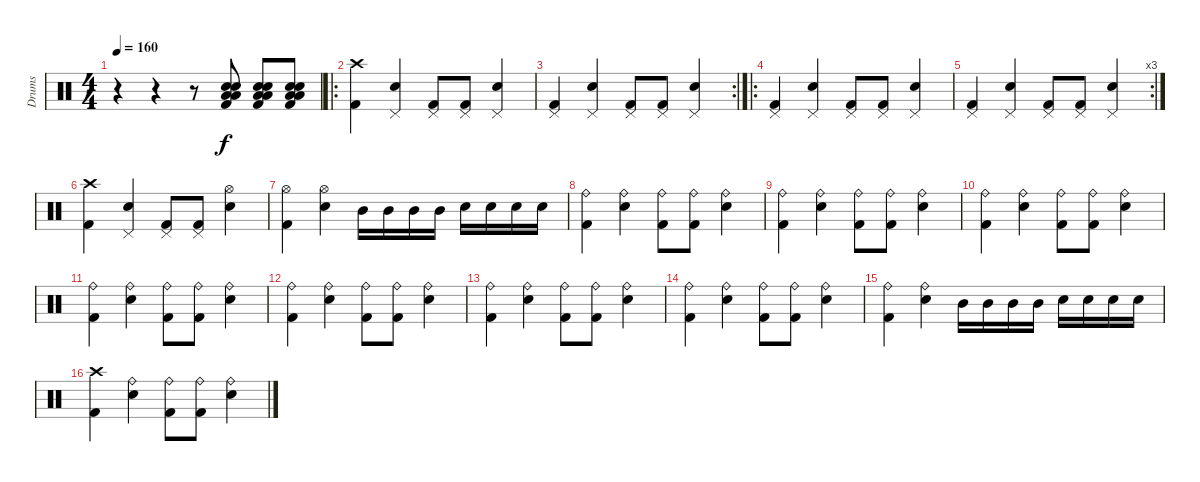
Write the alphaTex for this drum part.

\track ("Drums" "Drums") {instrument percussion}
\staff {score}
\articulation defaults
\ts (4 4)
\tempo 160
\clef neutral
\ks c
r.4{dy f} r.4 r.8 ("Electric Snare (hit)" "Electric Snare (hit)" "Low Floor Tom (hit)" "Low Floor Tom (hit)" "Kick (hit) 2").8 ("Electric Snare (hit)" "Electric Snare (hit)" "Low Floor Tom (hit)" "Low Floor Tom (hit)" "Kick (hit) 2").8 ("Electric Snare (hit)" "Electric Snare (hit)" "Low Floor Tom (hit)" "Low Floor Tom (hit)" "Kick (hit) 2").8 |
\ro
("Crash high (hit)" "Kick (hit) 2").4 ("Electric Snare (hit)" "Pedal Hi-Hat (hit)").4 ("Kick (hit) 2" "Pedal Hi-Hat (hit)").8 ("Kick (hit) 2" "Pedal Hi-Hat (hit)").8 ("Electric Snare (hit)" "Pedal Hi-Hat (hit)").4 |
\rc 2
("Kick (hit) 2" "Pedal Hi-Hat (hit)").4 ("Electric Snare (hit)" "Pedal Hi-Hat (hit)").4 ("Kick (hit) 2" "Pedal Hi-Hat (hit)").8 ("Kick (hit) 2" "Pedal Hi-Hat (hit)").8 ("Electric Snare (hit)" "Pedal Hi-Hat (hit)").4 |
\ro
("Pedal Hi-Hat (hit)" "Kick (hit) 2").4 ("Electric Snare (hit)" "Pedal Hi-Hat (hit)").4 ("Kick (hit) 2" "Pedal Hi-Hat (hit)").8 ("Kick (hit) 2" "Pedal Hi-Hat (hit)").8 ("Electric Snare (hit)" "Pedal Hi-Hat (hit)").4 |
\rc 3
("Kick (hit) 2" "Pedal Hi-Hat (hit)").4 ("Electric Snare (hit)" "Pedal Hi-Hat (hit)").4 ("Kick (hit) 2" "Pedal Hi-Hat (hit)").8 ("Kick (hit) 2" "Pedal Hi-Hat (hit)").8 ("Electric Snare (hit)" "Pedal Hi-Hat (hit)").4 |
("Crash high (hit)" "Kick (hit) 2").4 ("Electric Snare (hit)" "Pedal Hi-Hat (hit)").4 ("Kick (hit) 2" "Pedal Hi-Hat (hit)").8 ("Kick (hit) 2" "Pedal Hi-Hat (hit)").8 ("Electric Snare (hit)" "Hi-Hat (open)").4 |
("Kick (hit) 2" "Hi-Hat (open)").4 ("Electric Snare (hit)" "Hi-Hat (open)").4 "Mid Tom (hit)".16 "Mid Tom (hit)".16 "Mid Tom (hit)".16 "Mid Tom (hit)".16 "Electric Snare (hit)".16 "Electric Snare (hit)".16 "Electric Snare (hit)".16 "Electric Snare (hit)".16 |
("Ride (bell)" "Kick (hit) 2").4 ("Electric Snare (hit)" "Ride (bell)").4 ("Kick (hit) 2" "Ride (bell)").8 ("Kick (hit) 2" "Ride (bell)").8 ("Electric Snare (hit)" "Ride (bell)").4 |
("Kick (hit) 2" "Ride (bell)").4 ("Electric Snare (hit)" "Ride (bell)").4 ("Kick (hit) 2" "Ride (bell)").8 ("Kick (hit) 2" "Ride (bell)").8 ("Electric Snare (hit)" "Ride (bell)").4 |
("Ride (bell)" "Kick (hit) 2").4 ("Electric Snare (hit)" "Ride (bell)").4 ("Kick (hit) 2" "Ride (bell)").8 ("Kick (hit) 2" "Ride (bell)").8 ("Electric Snare (hit)" "Ride (bell)").4 |
("Kick (hit) 2" "Ride (bell)").4 ("Electric Snare (hit)" "Ride (bell)").4 ("Kick (hit) 2" "Ride (bell)").8 ("Kick (hit) 2" "Ride (bell)").8 ("Electric Snare (hit)" "Ride (bell)").4 |
("Ride (bell)" "Kick (hit) 2").4 ("Electric Snare (hit)" "Ride (bell)").4 ("Kick (hit) 2" "Ride (bell)").8 ("Kick (hit) 2" "Ride (bell)").8 ("Electric Snare (hit)" "Ride (bell)").4 |
("Kick (hit) 2" "Ride (bell)").4 ("Electric Snare (hit)" "Ride (bell)").4 ("Kick (hit) 2" "Ride (bell)").8 ("Kick (hit) 2" "Ride (bell)").8 ("Electric Snare (hit)" "Ride (bell)").4 |
("Ride (bell)" "Kick (hit) 2").4 ("Electric Snare (hit)" "Ride (bell)").4 ("Kick (hit) 2" "Ride (bell)").8 ("Kick (hit) 2" "Ride (bell)").8 ("Electric Snare (hit)" "Ride (bell)").4 |
("Kick (hit) 2" "Ride (bell)").4 ("Electric Snare (hit)" "Ride (bell)").4 "Mid Tom (hit)".16 "Mid Tom (hit)".16 "Mid Tom (hit)".16 "Mid Tom (hit)".16 "Electric Snare (hit)".16 "Electric Snare (hit)".16 "Electric Snare (hit)".16 "Electric Snare (hit)".16 |
("Crash high (hit)" "Kick (hit) 2").4 ("Electric Snare (hit)" "Ride (bell)").4 ("Kick (hit) 2" "Ride (bell)").8 ("Kick (hit) 2" "Ride (bell)").8 ("Electric Snare (hit)" "Ride (bell)").4
